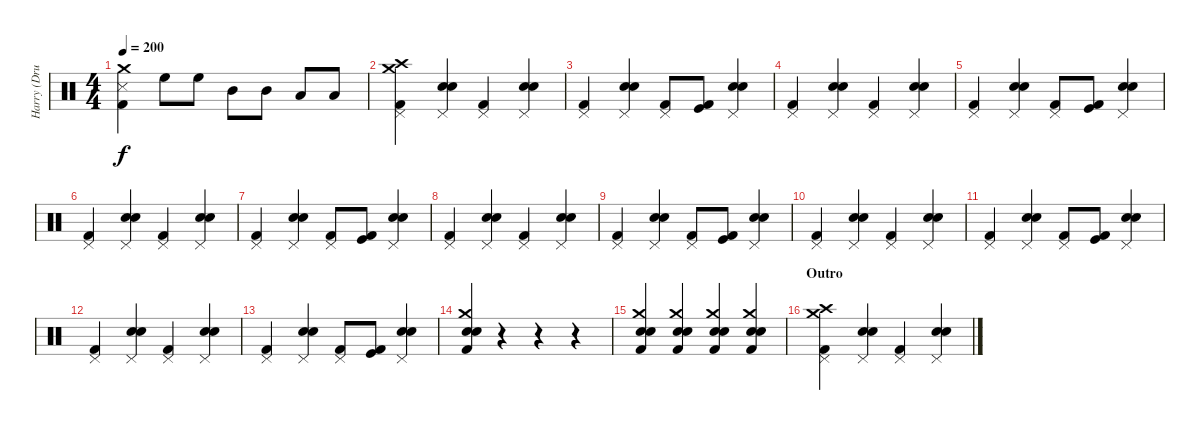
\track ("Harry (Drums)" "Harry (Dru") {instrument percussion}
\staff {score}
\articulation defaults
\ts (4 4)
\tempo 200
\clef neutral
\ks c
("Kick (hit) 2" "Snare (side stick) 3" "Crash medium (hit)").4{dy f} "High Floor Tom (hit)".8 "High Floor Tom (hit)".8 "Mid Tom (hit)".8 "Mid Tom (hit)".8 "Low Tom (hit)".8 "Low Tom (hit)".8 |
("Kick (hit) 2" "Pedal Hi-Hat (hit)" "Crash medium (hit)" "Crash high (hit)").4 ("Snare (hit) 2" "Electric Snare (hit)" "Pedal Hi-Hat (hit)").4 ("Kick (hit) 2" "Pedal Hi-Hat (hit)").4 ("Snare (hit) 2" "Electric Snare (hit)" "Pedal Hi-Hat (hit)").4 |
("Kick (hit) 2" "Pedal Hi-Hat (hit)").4 ("Snare (hit) 2" "Electric Snare (hit)" "Pedal Hi-Hat (hit)").4 ("Kick (hit) 2" "Pedal Hi-Hat (hit)").8 ("Kick (hit) 2" "Kick (hit)").8 ("Snare (hit) 2" "Electric Snare (hit)" "Pedal Hi-Hat (hit)").4 |
("Kick (hit) 2" "Pedal Hi-Hat (hit)").4 ("Snare (hit) 2" "Electric Snare (hit)" "Pedal Hi-Hat (hit)").4 ("Kick (hit) 2" "Pedal Hi-Hat (hit)").4 ("Snare (hit) 2" "Electric Snare (hit)" "Pedal Hi-Hat (hit)").4 |
("Kick (hit) 2" "Pedal Hi-Hat (hit)").4 ("Snare (hit) 2" "Electric Snare (hit)" "Pedal Hi-Hat (hit)").4 ("Kick (hit) 2" "Pedal Hi-Hat (hit)").8 ("Kick (hit) 2" "Kick (hit)").8 ("Snare (hit) 2" "Electric Snare (hit)" "Pedal Hi-Hat (hit)").4 |
("Kick (hit) 2" "Pedal Hi-Hat (hit)").4 ("Snare (hit) 2" "Electric Snare (hit)" "Pedal Hi-Hat (hit)").4 ("Kick (hit) 2" "Pedal Hi-Hat (hit)").4 ("Snare (hit) 2" "Electric Snare (hit)" "Pedal Hi-Hat (hit)").4 |
("Kick (hit) 2" "Pedal Hi-Hat (hit)").4 ("Snare (hit) 2" "Electric Snare (hit)" "Pedal Hi-Hat (hit)").4 ("Kick (hit) 2" "Pedal Hi-Hat (hit)").8 ("Kick (hit) 2" "Kick (hit)").8 ("Snare (hit) 2" "Electric Snare (hit)" "Pedal Hi-Hat (hit)").4 |
("Kick (hit) 2" "Pedal Hi-Hat (hit)").4 ("Snare (hit) 2" "Electric Snare (hit)" "Pedal Hi-Hat (hit)").4 ("Kick (hit) 2" "Pedal Hi-Hat (hit)").4 ("Snare (hit) 2" "Electric Snare (hit)" "Pedal Hi-Hat (hit)").4 |
("Kick (hit) 2" "Pedal Hi-Hat (hit)").4 ("Snare (hit) 2" "Electric Snare (hit)" "Pedal Hi-Hat (hit)").4 ("Kick (hit) 2" "Pedal Hi-Hat (hit)").8 ("Kick (hit) 2" "Kick (hit)").8 ("Snare (hit) 2" "Electric Snare (hit)" "Pedal Hi-Hat (hit)").4 |
("Kick (hit) 2" "Pedal Hi-Hat (hit)").4 ("Snare (hit) 2" "Electric Snare (hit)" "Pedal Hi-Hat (hit)").4 ("Kick (hit) 2" "Pedal Hi-Hat (hit)").4 ("Snare (hit) 2" "Electric Snare (hit)" "Pedal Hi-Hat (hit)").4 |
("Kick (hit) 2" "Pedal Hi-Hat (hit)").4 ("Snare (hit) 2" "Electric Snare (hit)" "Pedal Hi-Hat (hit)").4 ("Kick (hit) 2" "Pedal Hi-Hat (hit)").8 ("Kick (hit) 2" "Kick (hit)").8 ("Snare (hit) 2" "Electric Snare (hit)" "Pedal Hi-Hat (hit)").4 |
("Kick (hit) 2" "Pedal Hi-Hat (hit)").4 ("Snare (hit) 2" "Electric Snare (hit)" "Pedal Hi-Hat (hit)").4 ("Kick (hit) 2" "Pedal Hi-Hat (hit)").4 ("Snare (hit) 2" "Electric Snare (hit)" "Pedal Hi-Hat (hit)").4 |
("Kick (hit) 2" "Pedal Hi-Hat (hit)").4 ("Snare (hit) 2" "Electric Snare (hit)" "Pedal Hi-Hat (hit)").4 ("Kick (hit) 2" "Pedal Hi-Hat (hit)").8 ("Kick (hit) 2" "Kick (hit)").8 ("Snare (hit) 2" "Electric Snare (hit)" "Pedal Hi-Hat (hit)").4 |
("Kick (hit) 2" "Electric Snare (hit)" "Snare (hit) 2" "Crash medium (hit)").4 r.4 r.4 r.4 |
("Kick (hit) 2" "Snare (hit) 2" "Electric Snare (hit)" "Crash medium (hit)").4 ("Kick (hit) 2" "Snare (hit) 2" "Electric Snare (hit)" "Crash medium (hit)").4 ("Kick (hit) 2" "Snare (hit) 2" "Electric Snare (hit)" "Crash medium (hit)").4 ("Kick (hit) 2" "Snare (hit) 2" "Electric Snare (hit)" "Crash medium (hit)").4 |
\section ("" "Outro")
("Kick (hit) 2" "Pedal Hi-Hat (hit)" "Crash medium (hit)" "Crash high (hit)").4 ("Snare (hit) 2" "Electric Snare (hit)" "Pedal Hi-Hat (hit)").4 ("Kick (hit) 2" "Pedal Hi-Hat (hit)").4 ("Snare (hit) 2" "Electric Snare (hit)" "Pedal Hi-Hat (hit)").4
